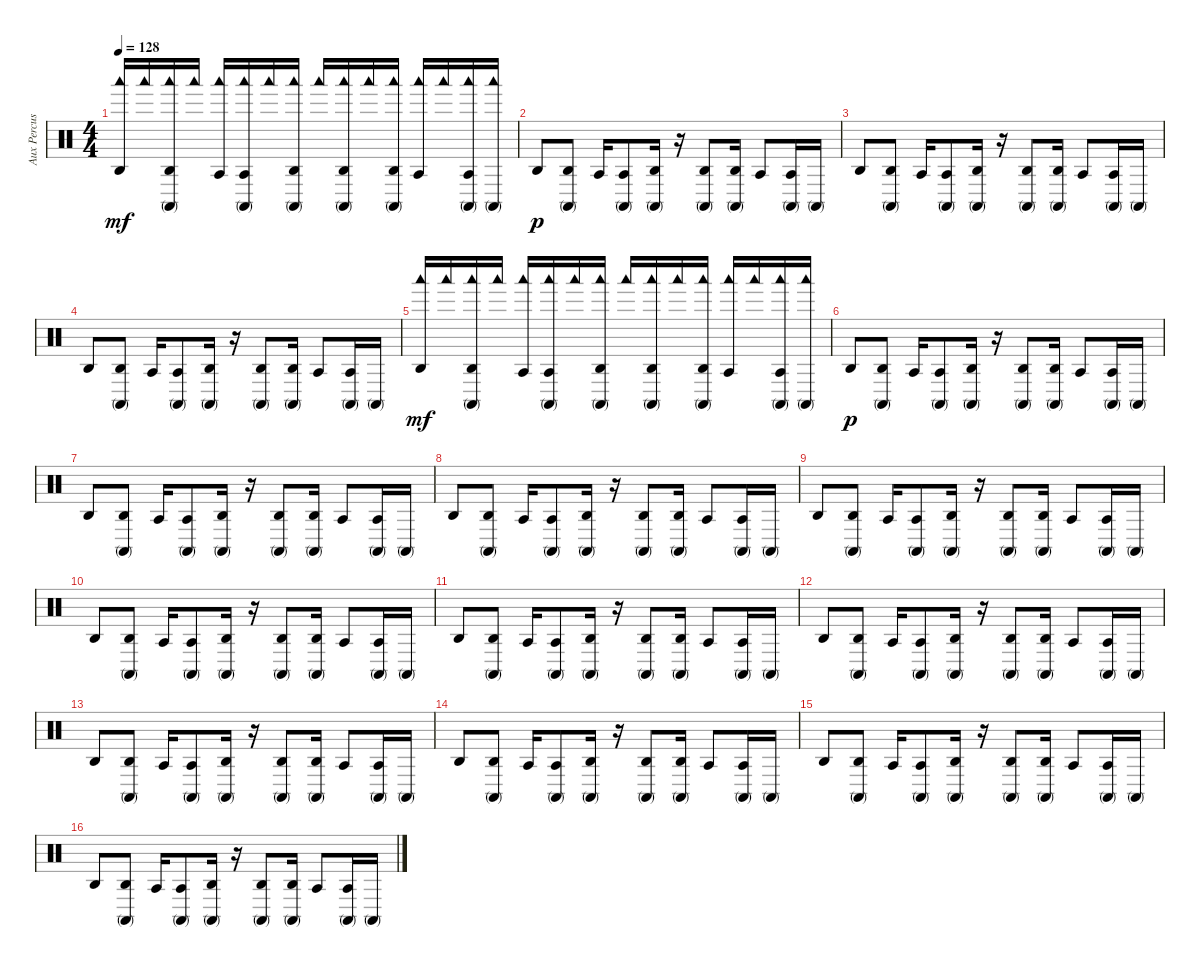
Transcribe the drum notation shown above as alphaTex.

\track ("Aux Percussion" "Aux Percus") {instrument percussion}
\staff {score}
\articulation defaults
\ts (4 4)
\tempo 128
\clef neutral
\ks c
("Agogo high (hit)" "Woodblock low (hit)").16{dy mf} "Woodblock low (hit)".16 ("Conga high (mute)" "Agogo high (hit)" "Woodblock low (hit)").16 "Woodblock low (hit)".16 ("Agogo tow (hit)" "Woodblock low (hit)").16 ("Conga high (mute)" "Agogo tow (hit)" "Woodblock low (hit)").16 "Woodblock low (hit)".16 ("Agogo high (hit)" "Conga high (mute)" "Woodblock low (hit)").16 "Woodblock low (hit)".16 ("Agogo high (hit)" "Conga high (mute)" "Woodblock low (hit)").16 "Woodblock low (hit)".16 ("Conga high (mute)" "Agogo high (hit)" "Woodblock low (hit)").16 ("Agogo tow (hit)" "Woodblock low (hit)").16 "Woodblock low (hit)".16 ("Agogo tow (hit)" "Conga high (mute)" "Woodblock low (hit)").16 ("Conga high (mute)" "Woodblock low (hit)").16 |
"Agogo high (hit)".8{dy p} ("Agogo high (hit)" "Conga high (mute)").8 "Agogo tow (hit)".16 ("Conga high (mute)" "Agogo tow (hit)").8 ("Conga high (mute)" "Agogo high (hit)").16 r.16 ("Conga high (mute)" "Agogo high (hit)").8 ("Agogo high (hit)" "Conga high (mute)").16 "Agogo tow (hit)".8 ("Conga high (mute)" "Agogo tow (hit)").16 "Conga high (mute)".16 |
"Agogo high (hit)".8 ("Agogo high (hit)" "Conga high (mute)").8 "Agogo tow (hit)".16 ("Agogo tow (hit)" "Conga high (mute)").8 ("Conga high (mute)" "Agogo high (hit)").16 r.16 ("Conga high (mute)" "Agogo high (hit)").8 ("Agogo high (hit)" "Conga high (mute)").16 "Agogo tow (hit)".8 ("Conga high (mute)" "Agogo tow (hit)").16 "Conga high (mute)".16 |
"Agogo high (hit)".8 ("Conga high (mute)" "Agogo high (hit)").8 "Agogo tow (hit)".16 ("Agogo tow (hit)" "Conga high (mute)").8 ("Agogo high (hit)" "Conga high (mute)").16 r.16 ("Agogo high (hit)" "Conga high (mute)").8 ("Conga high (mute)" "Agogo high (hit)").16 "Agogo tow (hit)".8 ("Agogo tow (hit)" "Conga high (mute)").16 "Conga high (mute)".16 |
("Agogo high (hit)" "Woodblock low (hit)").16{dy mf} "Woodblock low (hit)".16 ("Conga high (mute)" "Agogo high (hit)" "Woodblock low (hit)").16 "Woodblock low (hit)".16 ("Agogo tow (hit)" "Woodblock low (hit)").16 ("Conga high (mute)" "Agogo tow (hit)" "Woodblock low (hit)").16 "Woodblock low (hit)".16 ("Agogo high (hit)" "Conga high (mute)" "Woodblock low (hit)").16 "Woodblock low (hit)".16 ("Agogo high (hit)" "Conga high (mute)" "Woodblock low (hit)").16 "Woodblock low (hit)".16 ("Conga high (mute)" "Agogo high (hit)" "Woodblock low (hit)").16 ("Agogo tow (hit)" "Woodblock low (hit)").16 "Woodblock low (hit)".16 ("Agogo tow (hit)" "Conga high (mute)" "Woodblock low (hit)").16 ("Conga high (mute)" "Woodblock low (hit)").16 |
"Agogo high (hit)".8{dy p} ("Agogo high (hit)" "Conga high (mute)").8 "Agogo tow (hit)".16 ("Conga high (mute)" "Agogo tow (hit)").8 ("Conga high (mute)" "Agogo high (hit)").16 r.16 ("Conga high (mute)" "Agogo high (hit)").8 ("Agogo high (hit)" "Conga high (mute)").16 "Agogo tow (hit)".8 ("Conga high (mute)" "Agogo tow (hit)").16 "Conga high (mute)".16 |
"Agogo high (hit)".8 ("Agogo high (hit)" "Conga high (mute)").8 "Agogo tow (hit)".16 ("Agogo tow (hit)" "Conga high (mute)").8 ("Conga high (mute)" "Agogo high (hit)").16 r.16 ("Conga high (mute)" "Agogo high (hit)").8 ("Agogo high (hit)" "Conga high (mute)").16 "Agogo tow (hit)".8 ("Conga high (mute)" "Agogo tow (hit)").16 "Conga high (mute)".16 |
"Agogo high (hit)".8 ("Conga high (mute)" "Agogo high (hit)").8 "Agogo tow (hit)".16 ("Agogo tow (hit)" "Conga high (mute)").8 ("Agogo high (hit)" "Conga high (mute)").16 r.16 ("Agogo high (hit)" "Conga high (mute)").8 ("Conga high (mute)" "Agogo high (hit)").16 "Agogo tow (hit)".8 ("Agogo tow (hit)" "Conga high (mute)").16 "Conga high (mute)".16 |
"Agogo high (hit)".8 ("Conga high (mute)" "Agogo high (hit)").8 "Agogo tow (hit)".16 ("Conga high (mute)" "Agogo tow (hit)").8 ("Agogo high (hit)" "Conga high (mute)").16 r.16 ("Agogo high (hit)" "Conga high (mute)").8 ("Conga high (mute)" "Agogo high (hit)").16 "Agogo tow (hit)".8 ("Agogo tow (hit)" "Conga high (mute)").16 "Conga high (mute)".16 |
"Agogo high (hit)".8 ("Agogo high (hit)" "Conga high (mute)").8 "Agogo tow (hit)".16 ("Conga high (mute)" "Agogo tow (hit)").8 ("Conga high (mute)" "Agogo high (hit)").16 r.16 ("Conga high (mute)" "Agogo high (hit)").8 ("Agogo high (hit)" "Conga high (mute)").16 "Agogo tow (hit)".8 ("Conga high (mute)" "Agogo tow (hit)").16 "Conga high (mute)".16 |
"Agogo high (hit)".8 ("Agogo high (hit)" "Conga high (mute)").8 "Agogo tow (hit)".16 ("Agogo tow (hit)" "Conga high (mute)").8 ("Conga high (mute)" "Agogo high (hit)").16 r.16 ("Conga high (mute)" "Agogo high (hit)").8 ("Agogo high (hit)" "Conga high (mute)").16 "Agogo tow (hit)".8 ("Conga high (mute)" "Agogo tow (hit)").16 "Conga high (mute)".16 |
"Agogo high (hit)".8 ("Conga high (mute)" "Agogo high (hit)").8 "Agogo tow (hit)".16 ("Agogo tow (hit)" "Conga high (mute)").8 ("Agogo high (hit)" "Conga high (mute)").16 r.16 ("Agogo high (hit)" "Conga high (mute)").8 ("Conga high (mute)" "Agogo high (hit)").16 "Agogo tow (hit)".8 ("Agogo tow (hit)" "Conga high (mute)").16 "Conga high (mute)".16 |
"Agogo high (hit)".8 ("Conga high (mute)" "Agogo high (hit)").8 "Agogo tow (hit)".16 ("Conga high (mute)" "Agogo tow (hit)").8 ("Agogo high (hit)" "Conga high (mute)").16 r.16 ("Agogo high (hit)" "Conga high (mute)").8 ("Conga high (mute)" "Agogo high (hit)").16 "Agogo tow (hit)".8 ("Agogo tow (hit)" "Conga high (mute)").16 "Conga high (mute)".16 |
"Agogo high (hit)".8 ("Agogo high (hit)" "Conga high (mute)").8 "Agogo tow (hit)".16 ("Conga high (mute)" "Agogo tow (hit)").8 ("Conga high (mute)" "Agogo high (hit)").16 r.16 ("Conga high (mute)" "Agogo high (hit)").8 ("Agogo high (hit)" "Conga high (mute)").16 "Agogo tow (hit)".8 ("Conga high (mute)" "Agogo tow (hit)").16 "Conga high (mute)".16 |
"Agogo high (hit)".8 ("Agogo high (hit)" "Conga high (mute)").8 "Agogo tow (hit)".16 ("Agogo tow (hit)" "Conga high (mute)").8 ("Conga high (mute)" "Agogo high (hit)").16 r.16 ("Conga high (mute)" "Agogo high (hit)").8 ("Agogo high (hit)" "Conga high (mute)").16 "Agogo tow (hit)".8 ("Conga high (mute)" "Agogo tow (hit)").16 "Conga high (mute)".16 |
"Agogo high (hit)".8 ("Agogo high (hit)" "Conga high (mute)").8 "Agogo tow (hit)".16 ("Agogo tow (hit)" "Conga high (mute)").8 ("Conga high (mute)" "Agogo high (hit)").16 r.16 ("Conga high (mute)" "Agogo high (hit)").8 ("Agogo high (hit)" "Conga high (mute)").16 "Agogo tow (hit)".8 ("Conga high (mute)" "Agogo tow (hit)").16 "Conga high (mute)".16
